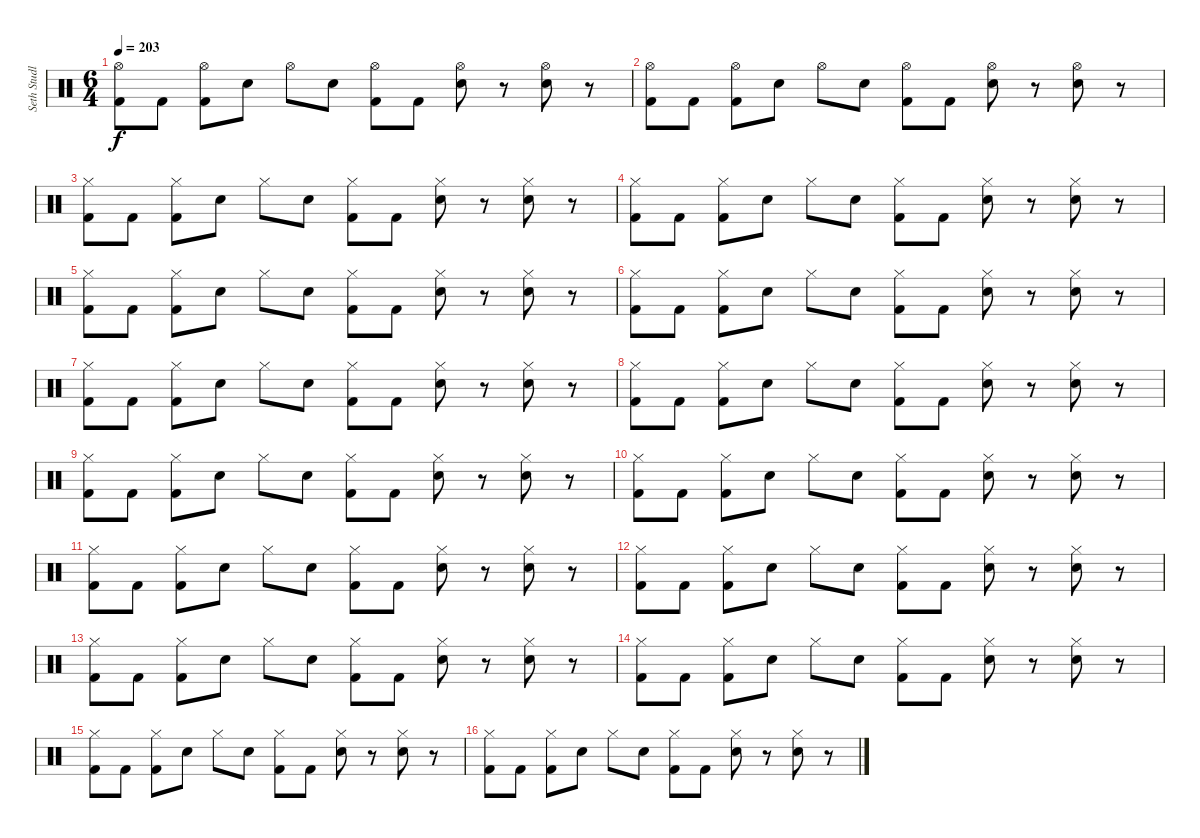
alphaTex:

\track ("Seth Studley (Drums)" "Seth Studl") {instrument percussion}
\staff {score}
\articulation defaults
\ts (6 4)
\tempo 203
\clef neutral
\ks c
("Hi-Hat (open)" "Kick (hit) 2").8{dy f} "Kick (hit) 2".8 ("Hi-Hat (open)" "Kick (hit) 2").8 "Electric Snare (hit)".8 "Hi-Hat (open)".8 "Electric Snare (hit)".8 ("Hi-Hat (open)" "Kick (hit) 2").8 "Kick (hit) 2".8 ("Hi-Hat (open)" "Electric Snare (hit)").8 r.8 ("Hi-Hat (open)" "Electric Snare (hit)").8 r.8 |
("Hi-Hat (open)" "Kick (hit) 2").8 "Kick (hit) 2".8 ("Hi-Hat (open)" "Kick (hit) 2").8 "Electric Snare (hit)".8 "Hi-Hat (open)".8 "Electric Snare (hit)".8 ("Hi-Hat (open)" "Kick (hit) 2").8 "Kick (hit) 2".8 ("Hi-Hat (open)" "Electric Snare (hit)").8 r.8 ("Hi-Hat (open)" "Electric Snare (hit)").8 r.8 |
("Hi-Hat (closed)" "Kick (hit) 2").8 "Kick (hit) 2".8 ("Hi-Hat (closed)" "Kick (hit) 2").8 "Electric Snare (hit)".8 "Hi-Hat (closed)".8 "Electric Snare (hit)".8 ("Hi-Hat (closed)" "Kick (hit) 2").8 "Kick (hit) 2".8 ("Hi-Hat (closed)" "Electric Snare (hit)").8 r.8 ("Hi-Hat (closed)" "Electric Snare (hit)").8 r.8 |
("Hi-Hat (closed)" "Kick (hit) 2").8 "Kick (hit) 2".8 ("Hi-Hat (closed)" "Kick (hit) 2").8 "Electric Snare (hit)".8 "Hi-Hat (closed)".8 "Electric Snare (hit)".8 ("Hi-Hat (closed)" "Kick (hit) 2").8 "Kick (hit) 2".8 ("Hi-Hat (closed)" "Electric Snare (hit)").8 r.8 ("Hi-Hat (closed)" "Electric Snare (hit)").8 r.8 |
("Hi-Hat (closed)" "Kick (hit) 2").8 "Kick (hit) 2".8 ("Hi-Hat (closed)" "Kick (hit) 2").8 "Electric Snare (hit)".8 "Hi-Hat (closed)".8 "Electric Snare (hit)".8 ("Hi-Hat (closed)" "Kick (hit) 2").8 "Kick (hit) 2".8 ("Hi-Hat (closed)" "Electric Snare (hit)").8 r.8 ("Hi-Hat (closed)" "Electric Snare (hit)").8 r.8 |
("Hi-Hat (closed)" "Kick (hit) 2").8 "Kick (hit) 2".8 ("Hi-Hat (closed)" "Kick (hit) 2").8 "Electric Snare (hit)".8 "Hi-Hat (closed)".8 "Electric Snare (hit)".8 ("Hi-Hat (closed)" "Kick (hit) 2").8 "Kick (hit) 2".8 ("Hi-Hat (closed)" "Electric Snare (hit)").8 r.8 ("Hi-Hat (closed)" "Electric Snare (hit)").8 r.8 |
("Hi-Hat (closed)" "Kick (hit) 2").8 "Kick (hit) 2".8 ("Hi-Hat (closed)" "Kick (hit) 2").8 "Electric Snare (hit)".8 "Hi-Hat (closed)".8 "Electric Snare (hit)".8 ("Hi-Hat (closed)" "Kick (hit) 2").8 "Kick (hit) 2".8 ("Hi-Hat (closed)" "Electric Snare (hit)").8 r.8 ("Hi-Hat (closed)" "Electric Snare (hit)").8 r.8 |
("Hi-Hat (closed)" "Kick (hit) 2").8 "Kick (hit) 2".8 ("Hi-Hat (closed)" "Kick (hit) 2").8 "Electric Snare (hit)".8 "Hi-Hat (closed)".8 "Electric Snare (hit)".8 ("Hi-Hat (closed)" "Kick (hit) 2").8 "Kick (hit) 2".8 ("Hi-Hat (closed)" "Electric Snare (hit)").8 r.8 ("Hi-Hat (closed)" "Electric Snare (hit)").8 r.8 |
("Hi-Hat (closed)" "Kick (hit) 2").8 "Kick (hit) 2".8 ("Hi-Hat (closed)" "Kick (hit) 2").8 "Electric Snare (hit)".8 "Hi-Hat (closed)".8 "Electric Snare (hit)".8 ("Hi-Hat (closed)" "Kick (hit) 2").8 "Kick (hit) 2".8 ("Hi-Hat (closed)" "Electric Snare (hit)").8 r.8 ("Hi-Hat (closed)" "Electric Snare (hit)").8 r.8 |
("Hi-Hat (closed)" "Kick (hit) 2").8 "Kick (hit) 2".8 ("Hi-Hat (closed)" "Kick (hit) 2").8 "Electric Snare (hit)".8 "Hi-Hat (closed)".8 "Electric Snare (hit)".8 ("Hi-Hat (closed)" "Kick (hit) 2").8 "Kick (hit) 2".8 ("Hi-Hat (closed)" "Electric Snare (hit)").8 r.8 ("Hi-Hat (closed)" "Electric Snare (hit)").8 r.8 |
("Hi-Hat (closed)" "Kick (hit) 2").8 "Kick (hit) 2".8 ("Hi-Hat (closed)" "Kick (hit) 2").8 "Electric Snare (hit)".8 "Hi-Hat (closed)".8 "Electric Snare (hit)".8 ("Hi-Hat (closed)" "Kick (hit) 2").8 "Kick (hit) 2".8 ("Hi-Hat (closed)" "Electric Snare (hit)").8 r.8 ("Hi-Hat (closed)" "Electric Snare (hit)").8 r.8 |
("Hi-Hat (closed)" "Kick (hit) 2").8 "Kick (hit) 2".8 ("Hi-Hat (closed)" "Kick (hit) 2").8 "Electric Snare (hit)".8 "Hi-Hat (closed)".8 "Electric Snare (hit)".8 ("Hi-Hat (closed)" "Kick (hit) 2").8 "Kick (hit) 2".8 ("Hi-Hat (closed)" "Electric Snare (hit)").8 r.8 ("Hi-Hat (closed)" "Electric Snare (hit)").8 r.8 |
("Hi-Hat (closed)" "Kick (hit) 2").8 "Kick (hit) 2".8 ("Hi-Hat (closed)" "Kick (hit) 2").8 "Electric Snare (hit)".8 "Hi-Hat (closed)".8 "Electric Snare (hit)".8 ("Hi-Hat (closed)" "Kick (hit) 2").8 "Kick (hit) 2".8 ("Hi-Hat (closed)" "Electric Snare (hit)").8 r.8 ("Hi-Hat (closed)" "Electric Snare (hit)").8 r.8 |
("Hi-Hat (closed)" "Kick (hit) 2").8 "Kick (hit) 2".8 ("Hi-Hat (closed)" "Kick (hit) 2").8 "Electric Snare (hit)".8 "Hi-Hat (closed)".8 "Electric Snare (hit)".8 ("Hi-Hat (closed)" "Kick (hit) 2").8 "Kick (hit) 2".8 ("Hi-Hat (closed)" "Electric Snare (hit)").8 r.8 ("Hi-Hat (closed)" "Electric Snare (hit)").8 r.8 |
("Hi-Hat (closed)" "Kick (hit) 2").8 "Kick (hit) 2".8 ("Hi-Hat (closed)" "Kick (hit) 2").8 "Electric Snare (hit)".8 "Hi-Hat (closed)".8 "Electric Snare (hit)".8 ("Hi-Hat (closed)" "Kick (hit) 2").8 "Kick (hit) 2".8 ("Hi-Hat (closed)" "Electric Snare (hit)").8 r.8 ("Hi-Hat (closed)" "Electric Snare (hit)").8 r.8 |
("Hi-Hat (closed)" "Kick (hit) 2").8 "Kick (hit) 2".8 ("Hi-Hat (closed)" "Kick (hit) 2").8 "Electric Snare (hit)".8 "Hi-Hat (closed)".8 "Electric Snare (hit)".8 ("Hi-Hat (closed)" "Kick (hit) 2").8 "Kick (hit) 2".8 ("Hi-Hat (closed)" "Electric Snare (hit)").8 r.8 ("Hi-Hat (closed)" "Electric Snare (hit)").8 r.8
